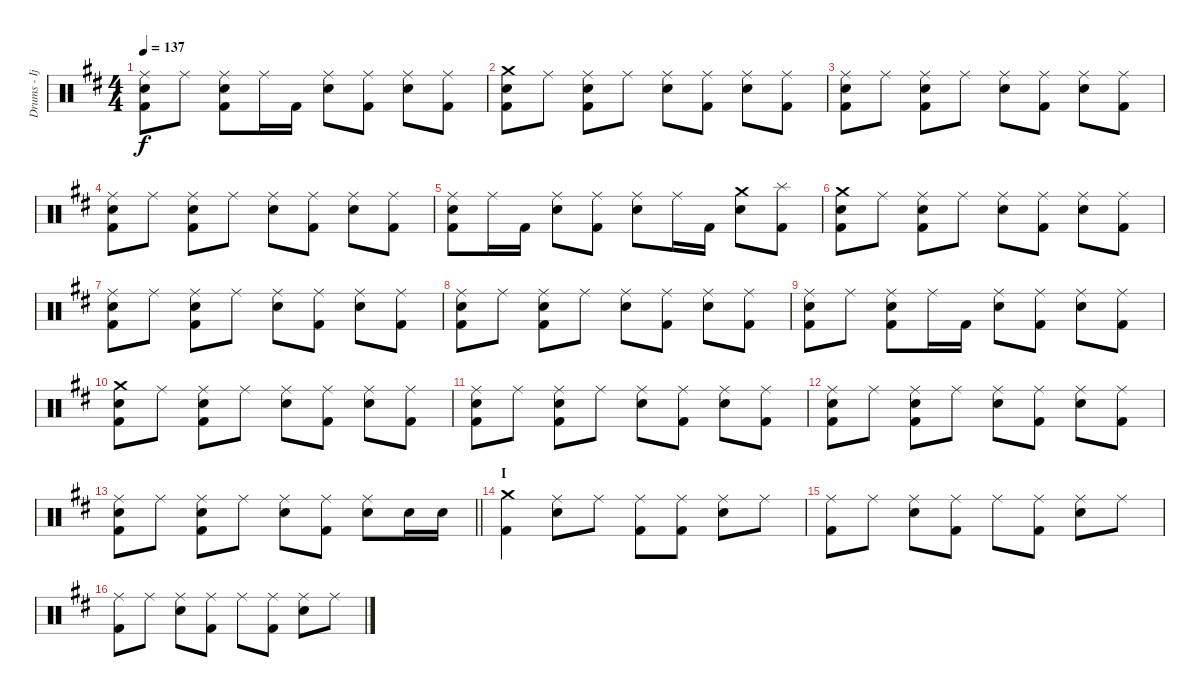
\track ("Drums - Ijichi" "Drums - Ij") {instrument percussion}
\staff {score}
\articulation defaults
\ts (4 4)
\tempo 137
\clef neutral
\ks d
("Ride (middle)" "Electric Snare (hit)" "Kick (hit) 2").8{dy f} "Ride (middle)".8 ("Ride (middle)" "Electric Snare (hit)" "Kick (hit) 2").8 "Ride (middle)".16 "Kick (hit) 2".16 ("Ride (middle)" "Electric Snare (hit)").8 ("Ride (middle)" "Kick (hit) 2").8 ("Ride (middle)" "Electric Snare (hit)").8 ("Ride (middle)" "Kick (hit) 2").8 |
("Crash medium (hit)" "Electric Snare (hit)" "Kick (hit) 2").8 "Ride (middle)".8 ("Ride (middle)" "Electric Snare (hit)" "Kick (hit) 2").8 "Ride (middle)".8 ("Ride (middle)" "Electric Snare (hit)").8 ("Ride (middle)" "Kick (hit) 2").8 ("Ride (middle)" "Electric Snare (hit)").8 ("Ride (middle)" "Kick (hit) 2").8 |
("Ride (middle)" "Electric Snare (hit)" "Kick (hit) 2").8 "Ride (middle)".8 ("Ride (middle)" "Electric Snare (hit)" "Kick (hit) 2").8 "Ride (middle)".8 ("Ride (middle)" "Electric Snare (hit)").8 ("Ride (middle)" "Kick (hit) 2").8 ("Ride (middle)" "Electric Snare (hit)").8 ("Ride (middle)" "Kick (hit) 2").8 |
("Ride (middle)" "Electric Snare (hit)" "Kick (hit) 2").8 "Ride (middle)".8 ("Ride (middle)" "Electric Snare (hit)" "Kick (hit) 2").8 "Ride (middle)".8 ("Ride (middle)" "Electric Snare (hit)").8 ("Ride (middle)" "Kick (hit) 2").8 ("Ride (middle)" "Electric Snare (hit)").8 ("Ride (middle)" "Kick (hit) 2").8 |
("Ride (middle)" "Electric Snare (hit)" "Kick (hit) 2").8 "Ride (middle)".16 "Kick (hit) 2".16 ("Ride (middle)" "Electric Snare (hit)").8 ("Ride (middle)" "Kick (hit) 2").8 ("Ride (middle)" "Electric Snare (hit)").8 "Ride (middle)".16 "Kick (hit) 2".16 ("Crash medium (hit)" "Electric Snare (hit)").8 ("Splash (hit)" "Kick (hit) 2").8 |
("Crash medium (hit)" "Electric Snare (hit)" "Kick (hit) 2").8 "Ride (middle)".8 ("Ride (middle)" "Electric Snare (hit)" "Kick (hit) 2").8 "Ride (middle)".8 ("Ride (middle)" "Electric Snare (hit)").8 ("Ride (middle)" "Kick (hit) 2").8 ("Ride (middle)" "Electric Snare (hit)").8 ("Ride (middle)" "Kick (hit) 2").8 |
("Ride (middle)" "Electric Snare (hit)" "Kick (hit) 2").8 "Ride (middle)".8 ("Ride (middle)" "Electric Snare (hit)" "Kick (hit) 2").8 "Ride (middle)".8 ("Ride (middle)" "Electric Snare (hit)").8 ("Ride (middle)" "Kick (hit) 2").8 ("Ride (middle)" "Electric Snare (hit)").8 ("Ride (middle)" "Kick (hit) 2").8 |
("Ride (middle)" "Electric Snare (hit)" "Kick (hit) 2").8 "Ride (middle)".8 ("Ride (middle)" "Electric Snare (hit)" "Kick (hit) 2").8 "Ride (middle)".8 ("Ride (middle)" "Electric Snare (hit)").8 ("Ride (middle)" "Kick (hit) 2").8 ("Ride (middle)" "Electric Snare (hit)").8 ("Ride (middle)" "Kick (hit) 2").8 |
("Ride (middle)" "Electric Snare (hit)" "Kick (hit) 2").8 "Ride (middle)".8 ("Ride (middle)" "Electric Snare (hit)" "Kick (hit) 2").8 "Ride (middle)".16 "Kick (hit) 2".16 ("Ride (middle)" "Electric Snare (hit)").8 ("Ride (middle)" "Kick (hit) 2").8 ("Ride (middle)" "Electric Snare (hit)").8 ("Ride (middle)" "Kick (hit) 2").8 |
("Crash medium (hit)" "Electric Snare (hit)" "Kick (hit) 2").8 "Ride (middle)".8 ("Ride (middle)" "Electric Snare (hit)" "Kick (hit) 2").8 "Ride (middle)".8 ("Ride (middle)" "Electric Snare (hit)").8 ("Ride (middle)" "Kick (hit) 2").8 ("Ride (middle)" "Electric Snare (hit)").8 ("Ride (middle)" "Kick (hit) 2").8 |
("Ride (middle)" "Electric Snare (hit)" "Kick (hit) 2").8 "Ride (middle)".8 ("Ride (middle)" "Electric Snare (hit)" "Kick (hit) 2").8 "Ride (middle)".8 ("Ride (middle)" "Electric Snare (hit)").8 ("Ride (middle)" "Kick (hit) 2").8 ("Ride (middle)" "Electric Snare (hit)").8 ("Ride (middle)" "Kick (hit) 2").8 |
("Ride (middle)" "Electric Snare (hit)" "Kick (hit) 2").8 "Ride (middle)".8 ("Ride (middle)" "Electric Snare (hit)" "Kick (hit) 2").8 "Ride (middle)".8 ("Ride (middle)" "Electric Snare (hit)").8 ("Ride (middle)" "Kick (hit) 2").8 ("Ride (middle)" "Electric Snare (hit)").8 ("Ride (middle)" "Kick (hit) 2").8 |
\barLineRight lightlight
("Ride (middle)" "Electric Snare (hit)" "Kick (hit) 2").8 "Ride (middle)".8 ("Ride (middle)" "Electric Snare (hit)" "Kick (hit) 2").8 "Ride (middle)".8 ("Ride (middle)" "Electric Snare (hit)").8 ("Ride (middle)" "Kick (hit) 2").8 ("Ride (middle)" "Electric Snare (hit)").8 "Electric Snare (hit)".16 "Electric Snare (hit)".16 |
\section ("" "I")
("Crash medium (hit)" "Kick (hit) 2").4 ("Ride (middle)" "Electric Snare (hit)").8 "Ride (middle)".8 ("Ride (middle)" "Kick (hit) 2").8 ("Ride (middle)" "Kick (hit) 2").8 ("Ride (middle)" "Electric Snare (hit)").8 "Ride (middle)".8 |
("Ride (middle)" "Kick (hit) 2").8 "Ride (middle)".8 ("Ride (middle)" "Electric Snare (hit)").8 ("Ride (middle)" "Kick (hit) 2").8 "Ride (middle)".8 ("Ride (middle)" "Kick (hit) 2").8 ("Ride (middle)" "Electric Snare (hit)").8 "Ride (middle)".8 |
("Ride (middle)" "Kick (hit) 2").8 "Ride (middle)".8 ("Ride (middle)" "Electric Snare (hit)").8 ("Ride (middle)" "Kick (hit) 2").8 "Ride (middle)".8 ("Ride (middle)" "Kick (hit) 2").8 ("Ride (middle)" "Electric Snare (hit)").8 "Ride (middle)".8
